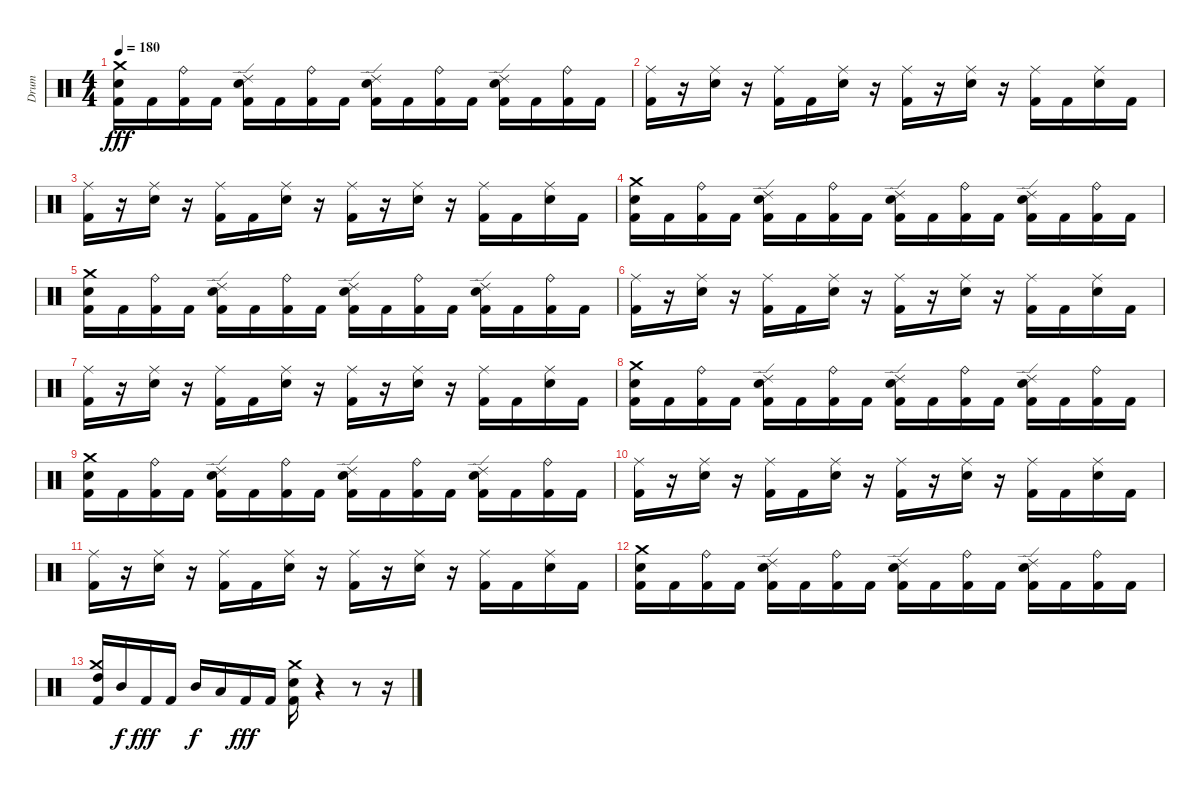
\track ("Drum" "Drum") {instrument percussion}
\staff {score}
\articulation defaults
\ts (4 4)
\tempo 180
\clef neutral
\ks c
("Electric Snare (hit)" "Kick (hit) 2" "Crash medium (hit)").16{dy fff} "Kick (hit) 2".16 ("Kick (hit) 2" "Ride (bell)").16 "Kick (hit) 2".16 ("Kick (hit) 2" "Electric Snare (hit)" "Ride (edge) 2").16 "Kick (hit) 2".16 ("Kick (hit) 2" "Ride (bell)").16 "Kick (hit) 2".16 ("Electric Snare (hit)" "Kick (hit) 2" "Ride (edge) 2").16 "Kick (hit) 2".16 ("Kick (hit) 2" "Ride (bell)").16 "Kick (hit) 2".16 ("Kick (hit) 2" "Electric Snare (hit)" "Ride (edge) 2").16 "Kick (hit) 2".16 ("Kick (hit) 2" "Ride (bell)").16 "Kick (hit) 2".16 |
("Kick (hit) 2" "Ride (middle)").16 r.16 ("Electric Snare (hit)" "Ride (middle)").16 r.16 ("Kick (hit) 2" "Ride (middle)").16 "Kick (hit) 2".16 ("Electric Snare (hit)" "Ride (middle)").16 r.16 ("Kick (hit) 2" "Ride (middle)").16 r.16 ("Electric Snare (hit)" "Ride (middle)").16 r.16 ("Kick (hit) 2" "Ride (middle)").16 "Kick (hit) 2".16 ("Electric Snare (hit)" "Ride (middle)").16 "Kick (hit) 2".16 |
("Kick (hit) 2" "Ride (middle)").16 r.16 ("Electric Snare (hit)" "Ride (middle)").16 r.16 ("Kick (hit) 2" "Ride (middle)").16 "Kick (hit) 2".16 ("Electric Snare (hit)" "Ride (middle)").16 r.16 ("Kick (hit) 2" "Ride (middle)").16 r.16 ("Electric Snare (hit)" "Ride (middle)").16 r.16 ("Kick (hit) 2" "Ride (middle)").16 "Kick (hit) 2".16 ("Electric Snare (hit)" "Ride (middle)").16 "Kick (hit) 2".16 |
("Kick (hit) 2" "Electric Snare (hit)" "Crash medium (hit)").16 "Kick (hit) 2".16 ("Kick (hit) 2" "Ride (bell)").16 "Kick (hit) 2".16 ("Electric Snare (hit)" "Kick (hit) 2" "Ride (edge) 2").16 "Kick (hit) 2".16 ("Kick (hit) 2" "Ride (bell)").16 "Kick (hit) 2".16 ("Electric Snare (hit)" "Kick (hit) 2" "Ride (edge) 2").16 "Kick (hit) 2".16 ("Kick (hit) 2" "Ride (bell)").16 "Kick (hit) 2".16 ("Kick (hit) 2" "Electric Snare (hit)" "Ride (edge) 2").16 "Kick (hit) 2".16 ("Kick (hit) 2" "Ride (bell)").16 "Kick (hit) 2".16 |
("Kick (hit) 2" "Electric Snare (hit)" "Crash medium (hit)").16 "Kick (hit) 2".16 ("Kick (hit) 2" "Ride (bell)").16 "Kick (hit) 2".16 ("Electric Snare (hit)" "Kick (hit) 2" "Ride (edge) 2").16 "Kick (hit) 2".16 ("Kick (hit) 2" "Ride (bell)").16 "Kick (hit) 2".16 ("Electric Snare (hit)" "Kick (hit) 2" "Ride (edge) 2").16 "Kick (hit) 2".16 ("Kick (hit) 2" "Ride (bell)").16 "Kick (hit) 2".16 ("Kick (hit) 2" "Electric Snare (hit)" "Ride (edge) 2").16 "Kick (hit) 2".16 ("Kick (hit) 2" "Ride (bell)").16 "Kick (hit) 2".16 |
("Kick (hit) 2" "Ride (middle)").16 r.16 ("Electric Snare (hit)" "Ride (middle)").16 r.16 ("Kick (hit) 2" "Ride (middle)").16 "Kick (hit) 2".16 ("Electric Snare (hit)" "Ride (middle)").16 r.16 ("Kick (hit) 2" "Ride (middle)").16 r.16 ("Electric Snare (hit)" "Ride (middle)").16 r.16 ("Kick (hit) 2" "Ride (middle)").16 "Kick (hit) 2".16 ("Electric Snare (hit)" "Ride (middle)").16 "Kick (hit) 2".16 |
("Kick (hit) 2" "Ride (middle)").16 r.16 ("Electric Snare (hit)" "Ride (middle)").16 r.16 ("Kick (hit) 2" "Ride (middle)").16 "Kick (hit) 2".16 ("Electric Snare (hit)" "Ride (middle)").16 r.16 ("Kick (hit) 2" "Ride (middle)").16 r.16 ("Electric Snare (hit)" "Ride (middle)").16 r.16 ("Kick (hit) 2" "Ride (middle)").16 "Kick (hit) 2".16 ("Electric Snare (hit)" "Ride (middle)").16 "Kick (hit) 2".16 |
("Electric Snare (hit)" "Kick (hit) 2" "Crash medium (hit)").16 "Kick (hit) 2".16 ("Kick (hit) 2" "Ride (bell)").16 "Kick (hit) 2".16 ("Kick (hit) 2" "Electric Snare (hit)" "Ride (edge) 2").16 "Kick (hit) 2".16 ("Kick (hit) 2" "Ride (bell)").16 "Kick (hit) 2".16 ("Electric Snare (hit)" "Kick (hit) 2" "Ride (edge) 2").16 "Kick (hit) 2".16 ("Kick (hit) 2" "Ride (bell)").16 "Kick (hit) 2".16 ("Electric Snare (hit)" "Kick (hit) 2" "Ride (edge) 2").16 "Kick (hit) 2".16 ("Kick (hit) 2" "Ride (bell)").16 "Kick (hit) 2".16 |
("Kick (hit) 2" "Electric Snare (hit)" "Crash medium (hit)").16 "Kick (hit) 2".16 ("Kick (hit) 2" "Ride (bell)").16 "Kick (hit) 2".16 ("Kick (hit) 2" "Electric Snare (hit)" "Ride (edge) 2").16 "Kick (hit) 2".16 ("Kick (hit) 2" "Ride (bell)").16 "Kick (hit) 2".16 ("Electric Snare (hit)" "Kick (hit) 2" "Ride (edge) 2").16 "Kick (hit) 2".16 ("Kick (hit) 2" "Ride (bell)").16 "Kick (hit) 2".16 ("Kick (hit) 2" "Electric Snare (hit)" "Ride (edge) 2").16 "Kick (hit) 2".16 ("Kick (hit) 2" "Ride (bell)").16 "Kick (hit) 2".16 |
("Kick (hit) 2" "Ride (middle)").16 r.16 ("Electric Snare (hit)" "Ride (middle)").16 r.16 ("Kick (hit) 2" "Ride (middle)").16 "Kick (hit) 2".16 ("Electric Snare (hit)" "Ride (middle)").16 r.16 ("Kick (hit) 2" "Ride (middle)").16 r.16 ("Electric Snare (hit)" "Ride (middle)").16 r.16 ("Kick (hit) 2" "Ride (middle)").16 "Kick (hit) 2".16 ("Electric Snare (hit)" "Ride (middle)").16 "Kick (hit) 2".16 |
("Kick (hit) 2" "Ride (middle)").16 r.16 ("Electric Snare (hit)" "Ride (middle)").16 r.16 ("Kick (hit) 2" "Ride (middle)").16 "Kick (hit) 2".16 ("Electric Snare (hit)" "Ride (middle)").16 r.16 ("Kick (hit) 2" "Ride (middle)").16 r.16 ("Electric Snare (hit)" "Ride (middle)").16 r.16 ("Kick (hit) 2" "Ride (middle)").16 "Kick (hit) 2".16 ("Electric Snare (hit)" "Ride (middle)").16 "Kick (hit) 2".16 |
("Electric Snare (hit)" "Kick (hit) 2" "Crash medium (hit)").16 "Kick (hit) 2".16 ("Kick (hit) 2" "Ride (bell)").16 "Kick (hit) 2".16 ("Electric Snare (hit)" "Kick (hit) 2" "Ride (edge) 2").16 "Kick (hit) 2".16 ("Kick (hit) 2" "Ride (bell)").16 "Kick (hit) 2".16 ("Electric Snare (hit)" "Kick (hit) 2" "Ride (edge) 2").16 "Kick (hit) 2".16 ("Kick (hit) 2" "Ride (bell)").16 "Kick (hit) 2".16 ("Electric Snare (hit)" "Kick (hit) 2" "Ride (edge) 2").16 "Kick (hit) 2".16 ("Kick (hit) 2" "Ride (bell)").16 "Kick (hit) 2".16 |
("Kick (hit) 2" "Crash medium (hit)" "High Tom (hit)").16 "Mid Tom (hit)".16{dy f} "Kick (hit) 2".16{dy fff} "Kick (hit) 2".16 "Mid Tom (hit)".16{dy f} "Low Tom (hit)".16 "Kick (hit) 2".16{dy fff} "Kick (hit) 2".16 ("Kick (hit) 2" "Electric Snare (hit)" "Crash medium (hit)").16 r.4 r.8 r.16
